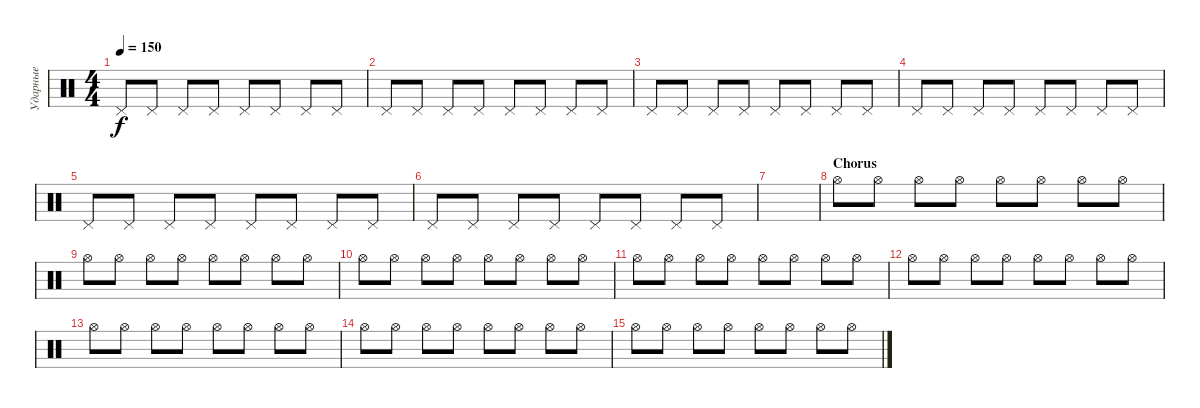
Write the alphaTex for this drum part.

\track ("Ударные" "Ударные") {instrument percussion}
\staff {score}
\articulation defaults
\ts (4 4)
\tempo 150
\clef neutral
\ks c "Pedal Hi-Hat (hit)".8{dy f} "Pedal Hi-Hat (hit)".8 "Pedal Hi-Hat (hit)".8 "Pedal Hi-Hat (hit)".8 "Pedal Hi-Hat (hit)".8 "Pedal Hi-Hat (hit)".8 "Pedal Hi-Hat (hit)".8 "Pedal Hi-Hat (hit)".8
|
"Pedal Hi-Hat (hit)".8 "Pedal Hi-Hat (hit)".8 "Pedal Hi-Hat (hit)".8 "Pedal Hi-Hat (hit)".8 "Pedal Hi-Hat (hit)".8 "Pedal Hi-Hat (hit)".8 "Pedal Hi-Hat (hit)".8 "Pedal Hi-Hat (hit)".8 |
"Pedal Hi-Hat (hit)".8 "Pedal Hi-Hat (hit)".8 "Pedal Hi-Hat (hit)".8 "Pedal Hi-Hat (hit)".8 "Pedal Hi-Hat (hit)".8 "Pedal Hi-Hat (hit)".8 "Pedal Hi-Hat (hit)".8 "Pedal Hi-Hat (hit)".8 |
"Pedal Hi-Hat (hit)".8 "Pedal Hi-Hat (hit)".8 "Pedal Hi-Hat (hit)".8 "Pedal Hi-Hat (hit)".8 "Pedal Hi-Hat (hit)".8 "Pedal Hi-Hat (hit)".8 "Pedal Hi-Hat (hit)".8 "Pedal Hi-Hat (hit)".8 |
"Pedal Hi-Hat (hit)".8 "Pedal Hi-Hat (hit)".8 "Pedal Hi-Hat (hit)".8 "Pedal Hi-Hat (hit)".8 "Pedal Hi-Hat (hit)".8 "Pedal Hi-Hat (hit)".8 "Pedal Hi-Hat (hit)".8 "Pedal Hi-Hat (hit)".8 |
"Pedal Hi-Hat (hit)".8 "Pedal Hi-Hat (hit)".8 "Pedal Hi-Hat (hit)".8 "Pedal Hi-Hat (hit)".8 "Pedal Hi-Hat (hit)".8 "Pedal Hi-Hat (hit)".8 "Pedal Hi-Hat (hit)".8 "Pedal Hi-Hat (hit)".8 |
|
\section ("" "Chorus")
"Hi-Hat (open)".8 "Hi-Hat (open)".8 "Hi-Hat (open)".8 "Hi-Hat (open)".8 "Hi-Hat (open)".8 "Hi-Hat (open)".8 "Hi-Hat (open)".8 "Hi-Hat (open)".8 |
"Hi-Hat (open)".8 "Hi-Hat (open)".8 "Hi-Hat (open)".8 "Hi-Hat (open)".8 "Hi-Hat (open)".8 "Hi-Hat (open)".8 "Hi-Hat (open)".8 "Hi-Hat (open)".8 |
"Hi-Hat (open)".8 "Hi-Hat (open)".8 "Hi-Hat (open)".8 "Hi-Hat (open)".8 "Hi-Hat (open)".8 "Hi-Hat (open)".8 "Hi-Hat (open)".8 "Hi-Hat (open)".8 |
"Hi-Hat (open)".8 "Hi-Hat (open)".8 "Hi-Hat (open)".8 "Hi-Hat (open)".8 "Hi-Hat (open)".8 "Hi-Hat (open)".8 "Hi-Hat (open)".8 "Hi-Hat (open)".8 |
"Hi-Hat (open)".8 "Hi-Hat (open)".8 "Hi-Hat (open)".8 "Hi-Hat (open)".8 "Hi-Hat (open)".8 "Hi-Hat (open)".8 "Hi-Hat (open)".8 "Hi-Hat (open)".8 |
"Hi-Hat (open)".8 "Hi-Hat (open)".8 "Hi-Hat (open)".8 "Hi-Hat (open)".8 "Hi-Hat (open)".8 "Hi-Hat (open)".8 "Hi-Hat (open)".8 "Hi-Hat (open)".8 |
"Hi-Hat (open)".8 "Hi-Hat (open)".8 "Hi-Hat (open)".8 "Hi-Hat (open)".8 "Hi-Hat (open)".8 "Hi-Hat (open)".8 "Hi-Hat (open)".8 "Hi-Hat (open)".8 |
"Hi-Hat (open)".8 "Hi-Hat (open)".8 "Hi-Hat (open)".8 "Hi-Hat (open)".8 "Hi-Hat (open)".8 "Hi-Hat (open)".8 "Hi-Hat (open)".8 "Hi-Hat (open)".8
